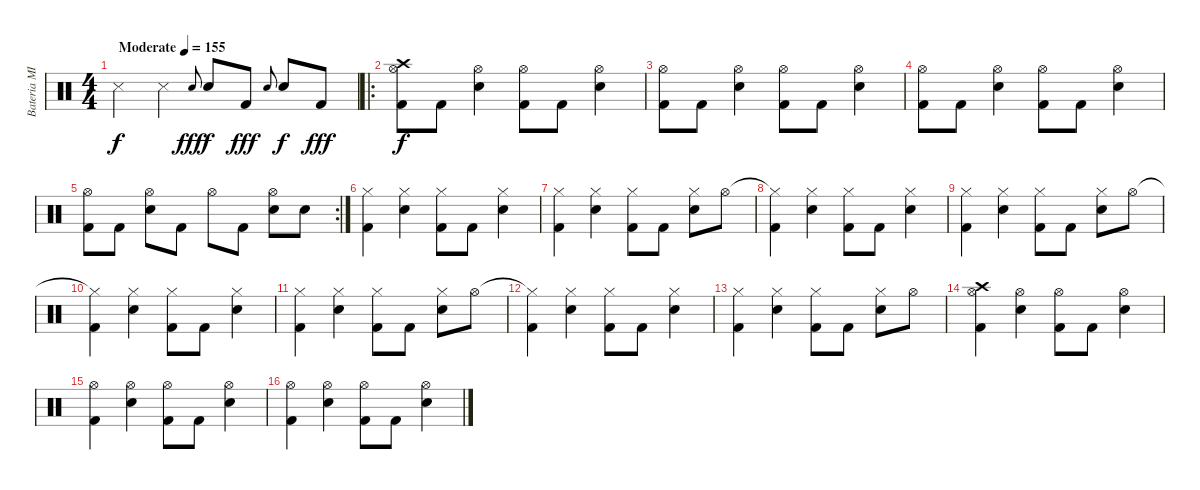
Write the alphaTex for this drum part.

\track ("Bateria MIDI" "Bateria MI") {instrument percussion bank 1}
\staff {score}
\articulation defaults
\ts (4 4)
\tempo (155 "Moderate")
\clef neutral
\ks c "Metronome (hit)".4{dy f} "Metronome (hit)".4 "Snare (hit) 2".8{gr onbeat dy fff} "Snare (hit) 2".8{dy f} "Kick (hit) 2".8{dy fff} "Snare (hit) 2".8{gr onbeat} "Snare (hit) 2".8{dy f} "Kick (hit) 2".8{dy fff}
|
\ro
("Hi-Hat (open)" "Crash high (hit)" "Kick (hit) 2").8{dy f} "Kick (hit) 2".8 ("Hi-Hat (open)" "Snare (hit) 2").4 ("Hi-Hat (open)" "Kick (hit) 2").8 "Kick (hit) 2".8 ("Hi-Hat (open)" "Snare (hit) 2").4 |
("Hi-Hat (open)" "Kick (hit) 2").8 "Kick (hit) 2".8 ("Hi-Hat (open)" "Snare (hit) 2").4 ("Hi-Hat (open)" "Kick (hit) 2").8 "Kick (hit) 2".8 ("Hi-Hat (open)" "Snare (hit) 2").4 |
("Hi-Hat (open)" "Kick (hit) 2").8 "Kick (hit) 2".8 ("Hi-Hat (open)" "Snare (hit) 2").4 ("Hi-Hat (open)" "Kick (hit) 2").8 "Kick (hit) 2".8 ("Hi-Hat (open)" "Snare (hit) 2").4 |
\rc 2
("Hi-Hat (open)" "Kick (hit) 2").8 "Kick (hit) 2".8 ("Hi-Hat (open)" "Snare (hit) 2").8 "Kick (hit) 2".8 "Hi-Hat (open)".8 "Kick (hit) 2".8 ("Hi-Hat (open)" "Snare (hit) 2").8 "Snare (hit) 2".8 |
("Hi-Hat (closed)" "Kick (hit) 2").4 ("Hi-Hat (closed)" "Snare (hit) 2").4 ("Hi-Hat (closed)" "Kick (hit) 2").8 "Kick (hit) 2".8 ("Hi-Hat (closed)" "Snare (hit) 2").4 |
("Hi-Hat (closed)" "Kick (hit) 2").4 ("Hi-Hat (closed)" "Snare (hit) 2").4 ("Hi-Hat (closed)" "Kick (hit) 2").8 "Kick (hit) 2".8 ("Hi-Hat (closed)" "Snare (hit) 2").8 "Hi-Hat (open)".8 |
("Hi-Hat (closed)"{t} "Kick (hit) 2").4 ("Hi-Hat (closed)" "Snare (hit) 2").4 ("Hi-Hat (closed)" "Kick (hit) 2").8 "Kick (hit) 2".8 ("Hi-Hat (closed)" "Snare (hit) 2").4 |
("Hi-Hat (closed)" "Kick (hit) 2").4 ("Hi-Hat (closed)" "Snare (hit) 2").4 ("Hi-Hat (closed)" "Kick (hit) 2").8 "Kick (hit) 2".8 ("Hi-Hat (closed)" "Snare (hit) 2").8 "Hi-Hat (open)".8 |
("Hi-Hat (closed)"{t} "Kick (hit) 2").4 ("Hi-Hat (closed)" "Snare (hit) 2").4 ("Hi-Hat (closed)" "Kick (hit) 2").8 "Kick (hit) 2".8 ("Hi-Hat (closed)" "Snare (hit) 2").4 |
("Hi-Hat (closed)" "Kick (hit) 2").4 ("Hi-Hat (closed)" "Snare (hit) 2").4 ("Hi-Hat (closed)" "Kick (hit) 2").8 "Kick (hit) 2".8 ("Hi-Hat (closed)" "Snare (hit) 2").8 "Hi-Hat (open)".8 |
("Hi-Hat (closed)"{t} "Kick (hit) 2").4 ("Hi-Hat (closed)" "Snare (hit) 2").4 ("Hi-Hat (closed)" "Kick (hit) 2").8 "Kick (hit) 2".8 ("Hi-Hat (closed)" "Snare (hit) 2").4 |
("Hi-Hat (closed)" "Kick (hit) 2").4 ("Hi-Hat (closed)" "Snare (hit) 2").4 ("Hi-Hat (closed)" "Kick (hit) 2").8 "Kick (hit) 2".8 ("Hi-Hat (closed)" "Snare (hit) 2").8 "Hi-Hat (open)".8 |
("Hi-Hat (open)" "Crash high (hit)" "Kick (hit) 2").4 ("Hi-Hat (open)" "Snare (hit) 2").4 ("Hi-Hat (open)" "Kick (hit) 2").8 "Kick (hit) 2".8 ("Hi-Hat (open)" "Snare (hit) 2").4 |
("Hi-Hat (open)" "Kick (hit) 2").4 ("Hi-Hat (open)" "Snare (hit) 2").4 ("Hi-Hat (open)" "Kick (hit) 2").8 "Kick (hit) 2".8 ("Hi-Hat (open)" "Snare (hit) 2").4 |
("Hi-Hat (open)" "Kick (hit) 2").4 ("Hi-Hat (open)" "Snare (hit) 2").4 ("Hi-Hat (open)" "Kick (hit) 2").8 "Kick (hit) 2".8 ("Hi-Hat (open)" "Snare (hit) 2").4
